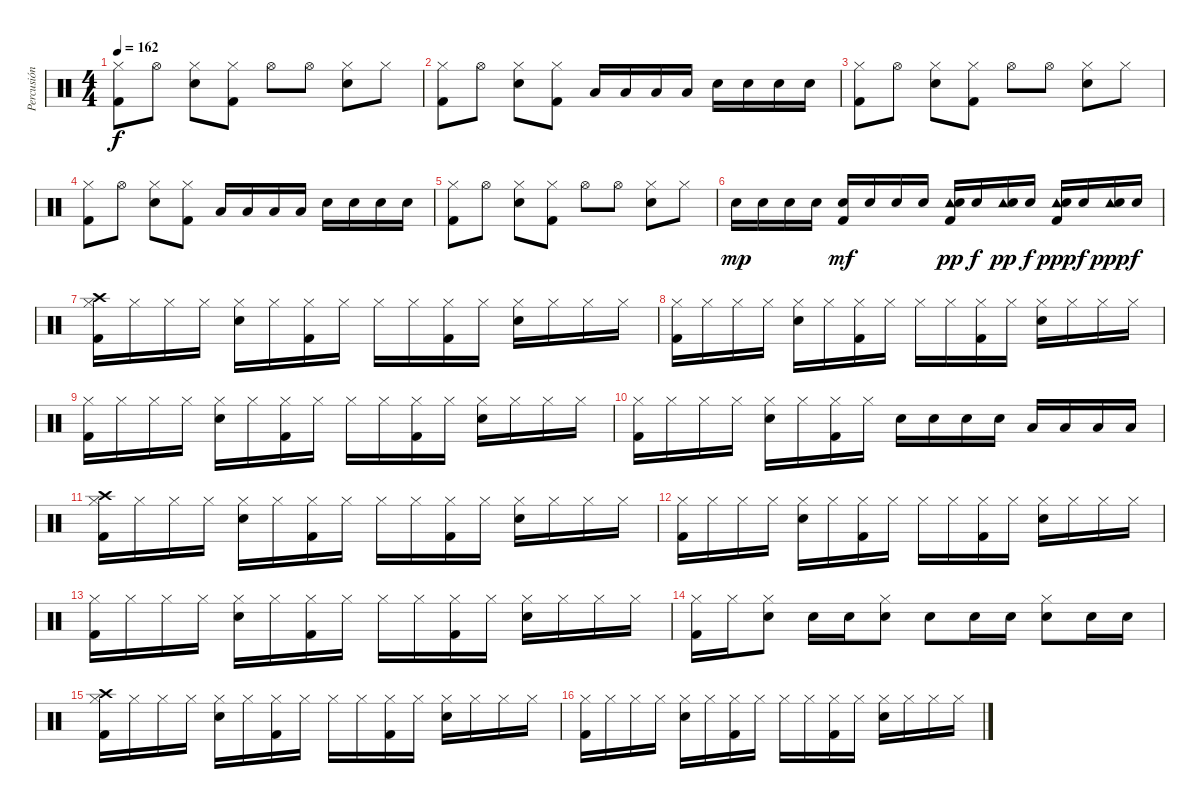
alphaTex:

\track ("Percusión" "Percusión") {instrument percussion}
\staff {score}
\articulation defaults
\ts (4 4)
\tempo 162
\clef neutral
\ks c
("Hi-Hat (closed)" "Kick (hit) 2").8{dy f} "Hi-Hat (open)".8 ("Hi-Hat (closed)" "Snare (hit) 2").8 ("Hi-Hat (closed)" "Kick (hit) 2").8 "Hi-Hat (open)".8 "Hi-Hat (open)".8 ("Hi-Hat (closed)" "Snare (hit) 2").8 "Hi-Hat (closed)".8 |
("Hi-Hat (closed)" "Kick (hit) 2").8 "Hi-Hat (open)".8 ("Hi-Hat (closed)" "Snare (hit) 2").8 ("Hi-Hat (closed)" "Kick (hit) 2").8 "Low Tom (hit)".16 "Low Tom (hit)".16 "Low Tom (hit)".16 "Low Tom (hit)".16 "Snare (hit) 2".16 "Snare (hit) 2".16 "Snare (hit) 2".16 "Snare (hit) 2".16 |
("Hi-Hat (closed)" "Kick (hit) 2").8 "Hi-Hat (open)".8 ("Hi-Hat (closed)" "Snare (hit) 2").8 ("Hi-Hat (closed)" "Kick (hit) 2").8 "Hi-Hat (open)".8 "Hi-Hat (open)".8 ("Hi-Hat (closed)" "Snare (hit) 2").8 "Hi-Hat (closed)".8 |
("Hi-Hat (closed)" "Kick (hit) 2").8 "Hi-Hat (open)".8 ("Hi-Hat (closed)" "Snare (hit) 2").8 ("Hi-Hat (closed)" "Kick (hit) 2").8 "Low Tom (hit)".16 "Low Tom (hit)".16 "Low Tom (hit)".16 "Low Tom (hit)".16 "Snare (hit) 2".16 "Snare (hit) 2".16 "Snare (hit) 2".16 "Snare (hit) 2".16 |
("Hi-Hat (closed)" "Kick (hit) 2").8 "Hi-Hat (open)".8 ("Hi-Hat (closed)" "Snare (hit) 2").8 ("Hi-Hat (closed)" "Kick (hit) 2").8 "Hi-Hat (open)".8 "Hi-Hat (open)".8 ("Hi-Hat (closed)" "Snare (hit) 2").8 "Hi-Hat (closed)".8 |
"Snare (hit) 2".16{dy mp} "Snare (hit) 2".16 "Snare (hit) 2".16 "Snare (hit) 2".16 ("Kick (hit) 2" "Snare (hit) 2").16{dy mf} "Snare (hit) 2".16 "Snare (hit) 2".16 "Snare (hit) 2".16 ("Tambourine (hit)" "Kick (hit) 2" "Snare (hit) 2").16{dy pp} "Snare (hit) 2".16{dy f} ("Tambourine (hit)" "Snare (hit) 2").16{dy pp} "Snare (hit) 2".16{dy f} ("Tambourine (hit)" "Kick (hit) 2" "Snare (hit) 2").16{dy ppp} "Snare (hit) 2".16{dy f} ("Tambourine (hit)" "Snare (hit) 2").16{dy ppp} "Snare (hit) 2".16{dy f} |
("Crash high (hit)" "Hi-Hat (closed)" "Kick (hit) 2").16 "Hi-Hat (closed)".16 "Hi-Hat (closed)".16 "Hi-Hat (closed)".16 ("Hi-Hat (closed)" "Snare (hit) 2").16 "Hi-Hat (closed)".16 ("Hi-Hat (closed)" "Kick (hit) 2").16 "Hi-Hat (closed)".16 "Hi-Hat (closed)".16 "Hi-Hat (closed)".16 ("Hi-Hat (closed)" "Kick (hit) 2").16 "Hi-Hat (closed)".16 ("Hi-Hat (closed)" "Snare (hit) 2").16 "Hi-Hat (closed)".16 "Hi-Hat (closed)".16 "Hi-Hat (closed)".16 |
("Hi-Hat (closed)" "Kick (hit) 2").16 "Hi-Hat (closed)".16 "Hi-Hat (closed)".16 "Hi-Hat (closed)".16 ("Hi-Hat (closed)" "Snare (hit) 2").16 "Hi-Hat (closed)".16 ("Hi-Hat (closed)" "Kick (hit) 2").16 "Hi-Hat (closed)".16 "Hi-Hat (closed)".16 "Hi-Hat (closed)".16 ("Hi-Hat (closed)" "Kick (hit) 2").16 "Hi-Hat (closed)".16 ("Hi-Hat (closed)" "Snare (hit) 2").16 "Hi-Hat (closed)".16 "Hi-Hat (closed)".16 "Hi-Hat (closed)".16 |
("Hi-Hat (closed)" "Kick (hit) 2").16 "Hi-Hat (closed)".16 "Hi-Hat (closed)".16 "Hi-Hat (closed)".16 ("Hi-Hat (closed)" "Snare (hit) 2").16 "Hi-Hat (closed)".16 ("Hi-Hat (closed)" "Kick (hit) 2").16 "Hi-Hat (closed)".16 "Hi-Hat (closed)".16 "Hi-Hat (closed)".16 ("Hi-Hat (closed)" "Kick (hit) 2").16 "Hi-Hat (closed)".16 ("Hi-Hat (closed)" "Snare (hit) 2").16 "Hi-Hat (closed)".16 "Hi-Hat (closed)".16 "Hi-Hat (closed)".16 |
("Hi-Hat (closed)" "Kick (hit) 2").16 "Hi-Hat (closed)".16 "Hi-Hat (closed)".16 "Hi-Hat (closed)".16 ("Hi-Hat (closed)" "Snare (hit) 2").16 "Hi-Hat (closed)".16 ("Hi-Hat (closed)" "Kick (hit) 2").16 "Hi-Hat (closed)".16 "Snare (hit) 2".16 "Snare (hit) 2".16 "Snare (hit) 2".16 "Snare (hit) 2".16 "Low Tom (hit)".16 "Low Tom (hit)".16 "Low Tom (hit)".16 "Low Tom (hit)".16 |
("Crash high (hit)" "Hi-Hat (closed)" "Kick (hit) 2").16 "Hi-Hat (closed)".16 "Hi-Hat (closed)".16 "Hi-Hat (closed)".16 ("Hi-Hat (closed)" "Snare (hit) 2").16 "Hi-Hat (closed)".16 ("Hi-Hat (closed)" "Kick (hit) 2").16 "Hi-Hat (closed)".16 "Hi-Hat (closed)".16 "Hi-Hat (closed)".16 ("Hi-Hat (closed)" "Kick (hit) 2").16 "Hi-Hat (closed)".16 ("Hi-Hat (closed)" "Snare (hit) 2").16 "Hi-Hat (closed)".16 "Hi-Hat (closed)".16 "Hi-Hat (closed)".16 |
("Hi-Hat (closed)" "Kick (hit) 2").16 "Hi-Hat (closed)".16 "Hi-Hat (closed)".16 "Hi-Hat (closed)".16 ("Hi-Hat (closed)" "Snare (hit) 2").16 "Hi-Hat (closed)".16 ("Hi-Hat (closed)" "Kick (hit) 2").16 "Hi-Hat (closed)".16 "Hi-Hat (closed)".16 "Hi-Hat (closed)".16 ("Hi-Hat (closed)" "Kick (hit) 2").16 "Hi-Hat (closed)".16 ("Hi-Hat (closed)" "Snare (hit) 2").16 "Hi-Hat (closed)".16 "Hi-Hat (closed)".16 "Hi-Hat (closed)".16 |
("Hi-Hat (closed)" "Kick (hit) 2").16 "Hi-Hat (closed)".16 "Hi-Hat (closed)".16 "Hi-Hat (closed)".16 ("Hi-Hat (closed)" "Snare (hit) 2").16 "Hi-Hat (closed)".16 ("Hi-Hat (closed)" "Kick (hit) 2").16 "Hi-Hat (closed)".16 "Hi-Hat (closed)".16 "Hi-Hat (closed)".16 ("Hi-Hat (closed)" "Kick (hit) 2").16 "Hi-Hat (closed)".16 ("Hi-Hat (closed)" "Snare (hit) 2").16 "Hi-Hat (closed)".16 "Hi-Hat (closed)".16 "Hi-Hat (closed)".16 |
("Hi-Hat (closed)" "Kick (hit) 2").16 "Hi-Hat (closed)".16 ("Hi-Hat (closed)" "Snare (hit) 2").8 "Snare (hit) 2".16 "Snare (hit) 2".16 ("Hi-Hat (closed)" "Snare (hit) 2").8 "Snare (hit) 2".8 "Snare (hit) 2".16 "Snare (hit) 2".16 ("Hi-Hat (closed)" "Snare (hit) 2").8 "Snare (hit) 2".16 "Snare (hit) 2".16 |
("Crash high (hit)" "Hi-Hat (closed)" "Kick (hit) 2").16 "Hi-Hat (closed)".16 "Hi-Hat (closed)".16 "Hi-Hat (closed)".16 ("Hi-Hat (closed)" "Snare (hit) 2").16 "Hi-Hat (closed)".16 ("Hi-Hat (closed)" "Kick (hit) 2").16 "Hi-Hat (closed)".16 "Hi-Hat (closed)".16 "Hi-Hat (closed)".16 ("Hi-Hat (closed)" "Kick (hit) 2").16 "Hi-Hat (closed)".16 ("Hi-Hat (closed)" "Snare (hit) 2").16 "Hi-Hat (closed)".16 "Hi-Hat (closed)".16 "Hi-Hat (closed)".16 |
("Hi-Hat (closed)" "Kick (hit) 2").16 "Hi-Hat (closed)".16 "Hi-Hat (closed)".16 "Hi-Hat (closed)".16 ("Hi-Hat (closed)" "Snare (hit) 2").16 "Hi-Hat (closed)".16 ("Hi-Hat (closed)" "Kick (hit) 2").16 "Hi-Hat (closed)".16 "Hi-Hat (closed)".16 "Hi-Hat (closed)".16 ("Hi-Hat (closed)" "Kick (hit) 2").16 "Hi-Hat (closed)".16 ("Hi-Hat (closed)" "Snare (hit) 2").16 "Hi-Hat (closed)".16 "Hi-Hat (closed)".16 "Hi-Hat (closed)".16
